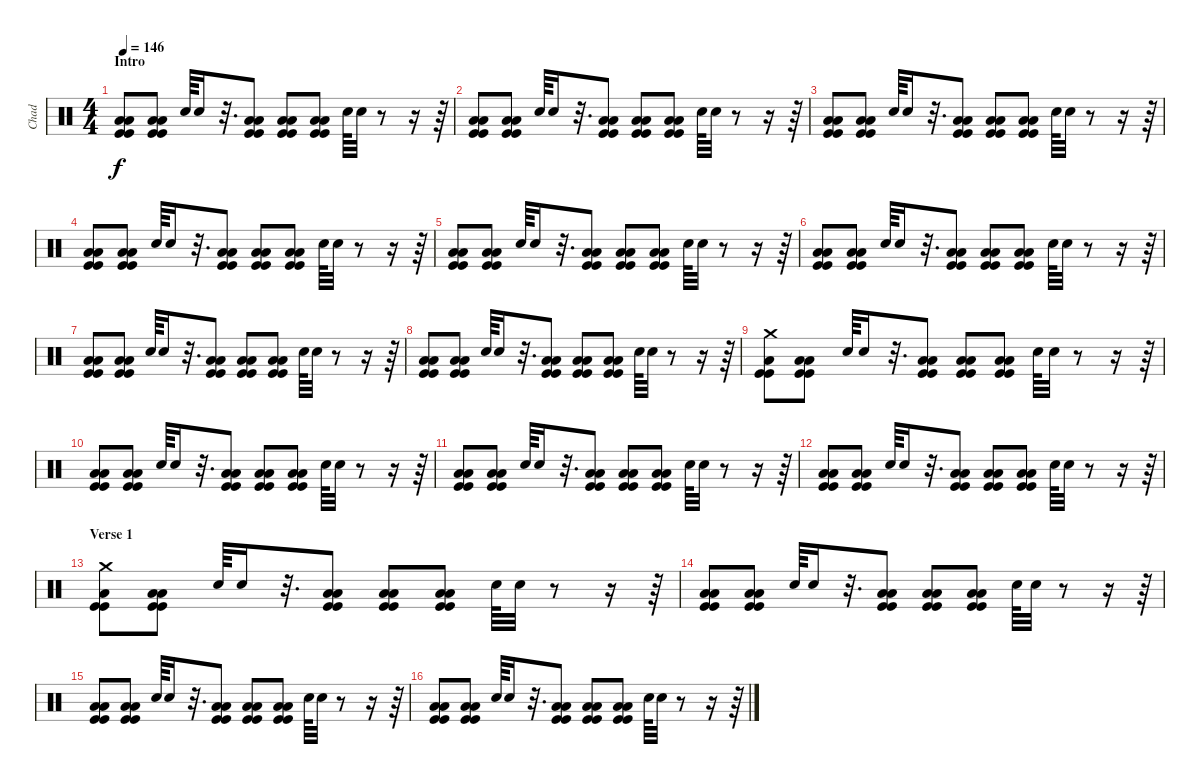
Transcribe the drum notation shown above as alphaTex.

\track ("Chad" "Chad") {instrument percussion}
\staff {score}
\articulation defaults
\ts (4 4)
\section ("" "Intro")
\tempo 146
\clef neutral
\ks c
("Low Tom (hit)" "Low Floor Tom (hit)" "Kick (hit)" "Kick (hit)").8{dy f} ("Low Tom (hit)" "Low Floor Tom (hit)" "Kick (hit)" "Kick (hit)").8 "Snare (hit) 2".64 "Snare (hit) 2".16 r.32{d} ("Low Tom (hit)" "Low Floor Tom (hit)" "Kick (hit)" "Kick (hit)").8 ("Low Tom (hit)" "Low Floor Tom (hit)" "Kick (hit)" "Kick (hit)").8 ("Low Tom (hit)" "Low Floor Tom (hit)" "Kick (hit)" "Kick (hit)").8 "Snare (hit) 2".64 "Snare (hit) 2".32 r.8 r.16 r.64 |
("Low Tom (hit)" "Low Floor Tom (hit)" "Kick (hit)" "Kick (hit)").8 ("Low Tom (hit)" "Low Floor Tom (hit)" "Kick (hit)" "Kick (hit)").8 "Snare (hit) 2".64 "Snare (hit) 2".16 r.32{d} ("Low Tom (hit)" "Low Floor Tom (hit)" "Kick (hit)" "Kick (hit)").8 ("Low Tom (hit)" "Low Floor Tom (hit)" "Kick (hit)" "Kick (hit)").8 ("Low Tom (hit)" "Low Floor Tom (hit)" "Kick (hit)" "Kick (hit)").8 "Snare (hit) 2".64 "Snare (hit) 2".32 r.8 r.16 r.64 |
("Low Tom (hit)" "Low Floor Tom (hit)" "Kick (hit)" "Kick (hit)").8 ("Low Tom (hit)" "Low Floor Tom (hit)" "Kick (hit)" "Kick (hit)").8 "Snare (hit) 2".64 "Snare (hit) 2".16 r.32{d} ("Low Tom (hit)" "Low Floor Tom (hit)" "Kick (hit)" "Kick (hit)").8 ("Low Tom (hit)" "Low Floor Tom (hit)" "Kick (hit)" "Kick (hit)").8 ("Low Tom (hit)" "Low Floor Tom (hit)" "Kick (hit)" "Kick (hit)").8 "Snare (hit) 2".64 "Snare (hit) 2".32 r.8 r.16 r.64 |
("Low Tom (hit)" "Low Floor Tom (hit)" "Kick (hit)" "Kick (hit)").8 ("Low Tom (hit)" "Low Floor Tom (hit)" "Kick (hit)" "Kick (hit)").8 "Snare (hit) 2".64 "Snare (hit) 2".16 r.32{d} ("Low Tom (hit)" "Low Floor Tom (hit)" "Kick (hit)" "Kick (hit)").8 ("Low Tom (hit)" "Low Floor Tom (hit)" "Kick (hit)" "Kick (hit)").8 ("Low Tom (hit)" "Low Floor Tom (hit)" "Kick (hit)" "Kick (hit)").8 "Snare (hit) 2".64 "Snare (hit) 2".32 r.8 r.16 r.64 |
("Low Tom (hit)" "Low Floor Tom (hit)" "Kick (hit)" "Kick (hit)").8 ("Low Tom (hit)" "Low Floor Tom (hit)" "Kick (hit)" "Kick (hit)").8 "Snare (hit) 2".64 "Snare (hit) 2".16 r.32{d} ("Low Tom (hit)" "Low Floor Tom (hit)" "Kick (hit)" "Kick (hit)").8 ("Low Tom (hit)" "Low Floor Tom (hit)" "Kick (hit)" "Kick (hit)").8 ("Low Tom (hit)" "Low Floor Tom (hit)" "Kick (hit)" "Kick (hit)").8 "Snare (hit) 2".64 "Snare (hit) 2".32 r.8 r.16 r.64 |
("Low Tom (hit)" "Low Floor Tom (hit)" "Kick (hit)" "Kick (hit)").8 ("Low Tom (hit)" "Low Floor Tom (hit)" "Kick (hit)" "Kick (hit)").8 "Snare (hit) 2".64 "Snare (hit) 2".16 r.32{d} ("Low Tom (hit)" "Low Floor Tom (hit)" "Kick (hit)" "Kick (hit)").8 ("Low Tom (hit)" "Low Floor Tom (hit)" "Kick (hit)" "Kick (hit)").8 ("Low Tom (hit)" "Low Floor Tom (hit)" "Kick (hit)" "Kick (hit)").8 "Snare (hit) 2".64 "Snare (hit) 2".32 r.8 r.16 r.64 |
("Low Tom (hit)" "Low Floor Tom (hit)" "Kick (hit)" "Kick (hit)").8 ("Low Tom (hit)" "Low Floor Tom (hit)" "Kick (hit)" "Kick (hit)").8 "Snare (hit) 2".64 "Snare (hit) 2".16 r.32{d} ("Low Tom (hit)" "Low Floor Tom (hit)" "Kick (hit)" "Kick (hit)").8 ("Low Tom (hit)" "Low Floor Tom (hit)" "Kick (hit)" "Kick (hit)").8 ("Low Tom (hit)" "Low Floor Tom (hit)" "Kick (hit)" "Kick (hit)").8 "Snare (hit) 2".64 "Snare (hit) 2".32 r.8 r.16 r.64 |
("Low Tom (hit)" "Low Floor Tom (hit)" "Kick (hit)" "Kick (hit)").8 ("Low Tom (hit)" "Low Floor Tom (hit)" "Kick (hit)" "Kick (hit)").8 "Snare (hit) 2".64 "Snare (hit) 2".16 r.32{d} ("Low Tom (hit)" "Low Floor Tom (hit)" "Kick (hit)" "Kick (hit)").8 ("Low Tom (hit)" "Low Floor Tom (hit)" "Kick (hit)" "Kick (hit)").8 ("Low Tom (hit)" "Low Floor Tom (hit)" "Kick (hit)" "Kick (hit)").8 "Snare (hit) 2".64 "Snare (hit) 2".32 r.8 r.16 r.64 |
("Crash medium (hit)" "Low Tom (hit)" "Kick (hit)" "Kick (hit)").8 ("Low Tom (hit)" "Low Floor Tom (hit)" "Kick (hit)" "Kick (hit)").8 "Snare (hit) 2".64 "Snare (hit) 2".16 r.32{d} ("Low Tom (hit)" "Low Floor Tom (hit)" "Kick (hit)" "Kick (hit)").8 ("Low Tom (hit)" "Low Floor Tom (hit)" "Kick (hit)" "Kick (hit)").8 ("Low Tom (hit)" "Low Floor Tom (hit)" "Kick (hit)" "Kick (hit)").8 "Snare (hit) 2".64 "Snare (hit) 2".32 r.8 r.16 r.64 |
("Low Tom (hit)" "Low Floor Tom (hit)" "Kick (hit)" "Kick (hit)").8 ("Low Tom (hit)" "Low Floor Tom (hit)" "Kick (hit)" "Kick (hit)").8 "Snare (hit) 2".64 "Snare (hit) 2".16 r.32{d} ("Low Tom (hit)" "Low Floor Tom (hit)" "Kick (hit)" "Kick (hit)").8 ("Low Tom (hit)" "Low Floor Tom (hit)" "Kick (hit)" "Kick (hit)").8 ("Low Tom (hit)" "Low Floor Tom (hit)" "Kick (hit)" "Kick (hit)").8 "Snare (hit) 2".64 "Snare (hit) 2".32 r.8 r.16 r.64 |
("Low Tom (hit)" "Low Floor Tom (hit)" "Kick (hit)" "Kick (hit)").8 ("Low Tom (hit)" "Low Floor Tom (hit)" "Kick (hit)" "Kick (hit)").8 "Snare (hit) 2".64 "Snare (hit) 2".16 r.32{d} ("Low Tom (hit)" "Low Floor Tom (hit)" "Kick (hit)" "Kick (hit)").8 ("Low Tom (hit)" "Low Floor Tom (hit)" "Kick (hit)" "Kick (hit)").8 ("Low Tom (hit)" "Low Floor Tom (hit)" "Kick (hit)" "Kick (hit)").8 "Snare (hit) 2".64 "Snare (hit) 2".32 r.8 r.16 r.64 |
("Low Tom (hit)" "Low Floor Tom (hit)" "Kick (hit)" "Kick (hit)").8 ("Low Tom (hit)" "Low Floor Tom (hit)" "Kick (hit)" "Kick (hit)").8 "Snare (hit) 2".64 "Snare (hit) 2".16 r.32{d} ("Low Tom (hit)" "Low Floor Tom (hit)" "Kick (hit)" "Kick (hit)").8 ("Low Tom (hit)" "Low Floor Tom (hit)" "Kick (hit)" "Kick (hit)").8 ("Low Tom (hit)" "Low Floor Tom (hit)" "Kick (hit)" "Kick (hit)").8 "Snare (hit) 2".64 "Snare (hit) 2".32 r.8 r.16 r.64 |
\section ("" "Verse 1")
("Crash medium (hit)" "Low Tom (hit)" "Kick (hit)" "Kick (hit)").8 ("Low Tom (hit)" "Low Floor Tom (hit)" "Kick (hit)" "Kick (hit)").8 "Snare (hit) 2".64 "Snare (hit) 2".16 r.32{d} ("Low Tom (hit)" "Low Floor Tom (hit)" "Kick (hit)" "Kick (hit)").8 ("Low Tom (hit)" "Low Floor Tom (hit)" "Kick (hit)" "Kick (hit)").8 ("Low Tom (hit)" "Low Floor Tom (hit)" "Kick (hit)" "Kick (hit)").8 "Snare (hit) 2".64 "Snare (hit) 2".32 r.8 r.16 r.64 |
("Low Tom (hit)" "Low Floor Tom (hit)" "Kick (hit)" "Kick (hit)").8 ("Low Tom (hit)" "Low Floor Tom (hit)" "Kick (hit)" "Kick (hit)").8 "Snare (hit) 2".64 "Snare (hit) 2".16 r.32{d} ("Low Tom (hit)" "Low Floor Tom (hit)" "Kick (hit)" "Kick (hit)").8 ("Low Tom (hit)" "Low Floor Tom (hit)" "Kick (hit)" "Kick (hit)").8 ("Low Tom (hit)" "Low Floor Tom (hit)" "Kick (hit)" "Kick (hit)").8 "Snare (hit) 2".64 "Snare (hit) 2".32 r.8 r.16 r.64 |
("Low Tom (hit)" "Low Floor Tom (hit)" "Kick (hit)" "Kick (hit)").8 ("Low Tom (hit)" "Low Floor Tom (hit)" "Kick (hit)" "Kick (hit)").8 "Snare (hit) 2".64 "Snare (hit) 2".16 r.32{d} ("Low Tom (hit)" "Low Floor Tom (hit)" "Kick (hit)" "Kick (hit)").8 ("Low Tom (hit)" "Low Floor Tom (hit)" "Kick (hit)" "Kick (hit)").8 ("Low Tom (hit)" "Low Floor Tom (hit)" "Kick (hit)" "Kick (hit)").8 "Snare (hit) 2".64 "Snare (hit) 2".32 r.8 r.16 r.64 |
("Low Tom (hit)" "Low Floor Tom (hit)" "Kick (hit)" "Kick (hit)").8 ("Low Tom (hit)" "Low Floor Tom (hit)" "Kick (hit)" "Kick (hit)").8 "Snare (hit) 2".64 "Snare (hit) 2".16 r.32{d} ("Low Tom (hit)" "Low Floor Tom (hit)" "Kick (hit)" "Kick (hit)").8 ("Low Tom (hit)" "Low Floor Tom (hit)" "Kick (hit)" "Kick (hit)").8 ("Low Tom (hit)" "Low Floor Tom (hit)" "Kick (hit)" "Kick (hit)").8 "Snare (hit) 2".64 "Snare (hit) 2".32 r.8 r.16 r.64
